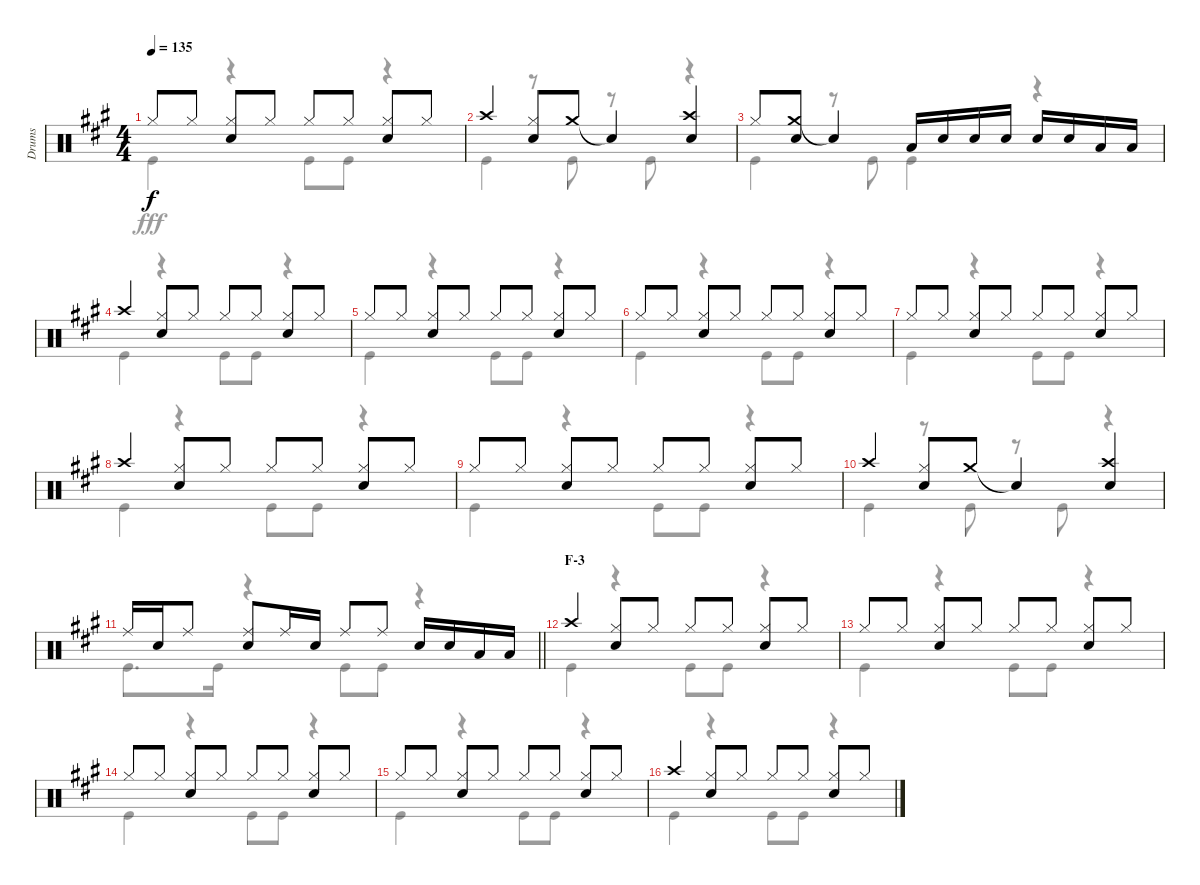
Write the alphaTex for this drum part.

\track ("Drums" "Drums") {instrument percussion}
\staff {score}
\articulation defaults
\voice
\ts (4 4)
\tempo 135
\clef neutral
\ks a "Hi-Hat (closed)".8{dy f} "Hi-Hat (closed)".8
("Hi-Hat (closed)" "Snare (hit) 2").8 "Hi-Hat (closed)".8 "Hi-Hat (closed)".8 "Hi-Hat (closed)".8 ("Hi-Hat (closed)" "Snare (hit) 2").8 "Hi-Hat (closed)".8 |
"Crash high (hit)".4 ("Hi-Hat (closed)" "Snare (hit) 2").8 "Crash medium (hit)".8 "Snare (hit)"{t}.4 ("Crash high (hit)" "Snare (hit) 2").4 |
"Hi-Hat (closed)".8 ("Crash medium (hit)" "Snare (hit) 2").8 "Snare (hit)"{t}.4 "Low Tom (hit)".16 "Snare (hit) 2".16 "Snare (hit) 2".16 "Snare (hit) 2".16 "Snare (hit) 2".16 "Snare (hit) 2".16 "Low Tom (hit)".16 "Low Tom (hit)".16 |
"Crash high (hit)".4 ("Hi-Hat (closed)" "Snare (hit) 2").8 "Hi-Hat (closed)".8 "Hi-Hat (closed)".8 "Hi-Hat (closed)".8 ("Hi-Hat (closed)" "Snare (hit) 2").8 "Hi-Hat (closed)".8 |
"Hi-Hat (closed)".8 "Hi-Hat (closed)".8 ("Hi-Hat (closed)" "Snare (hit) 2").8 "Hi-Hat (closed)".8 "Hi-Hat (closed)".8 "Hi-Hat (closed)".8 ("Hi-Hat (closed)" "Snare (hit) 2").8 "Hi-Hat (closed)".8 |
"Hi-Hat (closed)".8 "Hi-Hat (closed)".8 ("Hi-Hat (closed)" "Snare (hit) 2").8 "Hi-Hat (closed)".8 "Hi-Hat (closed)".8 "Hi-Hat (closed)".8 ("Hi-Hat (closed)" "Snare (hit) 2").8 "Hi-Hat (closed)".8 |
"Hi-Hat (closed)".8 "Hi-Hat (closed)".8 ("Hi-Hat (closed)" "Snare (hit) 2").8 "Hi-Hat (closed)".8 "Hi-Hat (closed)".8 "Hi-Hat (closed)".8 ("Hi-Hat (closed)" "Snare (hit) 2").8 "Hi-Hat (closed)".8 |
"Crash high (hit)".4 ("Hi-Hat (closed)" "Snare (hit) 2").8 "Hi-Hat (closed)".8 "Hi-Hat (closed)".8 "Hi-Hat (closed)".8 ("Hi-Hat (closed)" "Snare (hit) 2").8 "Hi-Hat (closed)".8 |
"Hi-Hat (closed)".8 "Hi-Hat (closed)".8 ("Hi-Hat (closed)" "Snare (hit) 2").8 "Hi-Hat (closed)".8 "Hi-Hat (closed)".8 "Hi-Hat (closed)".8 ("Hi-Hat (closed)" "Snare (hit) 2").8 "Hi-Hat (closed)".8 |
"Crash high (hit)".4 ("Hi-Hat (closed)" "Snare (hit) 2").8 "Crash medium (hit)".8 "Snare (hit)"{t}.4 ("Crash high (hit)" "Snare (hit) 2").4 |
\barLineRight lightlight "Ride (middle)".16 "Snare (hit) 2".16 "Ride (middle)".8
("Ride (middle)" "Snare (hit) 2").8 "Ride (middle)".16 "Snare (hit) 2".16 "Ride (middle)".8 "Ride (middle)".8 "Snare (hit) 2".16 "Snare (hit) 2".16 "Low Tom (hit)".16 "Low Tom (hit)".16 |
\section ("" "F-3")
"Crash high (hit)".4 ("Hi-Hat (closed)" "Snare (hit) 2").8 "Hi-Hat (closed)".8 "Hi-Hat (closed)".8 "Hi-Hat (closed)".8 ("Hi-Hat (closed)" "Snare (hit) 2").8 "Hi-Hat (closed)".8 |
"Hi-Hat (closed)".8 "Hi-Hat (closed)".8 ("Hi-Hat (closed)" "Snare (hit) 2").8 "Hi-Hat (closed)".8 "Hi-Hat (closed)".8 "Hi-Hat (closed)".8 ("Hi-Hat (closed)" "Snare (hit) 2").8 "Hi-Hat (closed)".8 |
"Hi-Hat (closed)".8 "Hi-Hat (closed)".8 ("Hi-Hat (closed)" "Snare (hit) 2").8 "Hi-Hat (closed)".8 "Hi-Hat (closed)".8 "Hi-Hat (closed)".8 ("Hi-Hat (closed)" "Snare (hit) 2").8 "Hi-Hat (closed)".8 |
"Hi-Hat (closed)".8 "Hi-Hat (closed)".8 ("Hi-Hat (closed)" "Snare (hit) 2").8 "Hi-Hat (closed)".8 "Hi-Hat (closed)".8 "Hi-Hat (closed)".8 ("Hi-Hat (closed)" "Snare (hit) 2").8 "Hi-Hat (closed)".8 |
"Crash high (hit)".4 ("Hi-Hat (closed)" "Snare (hit) 2").8 "Hi-Hat (closed)".8 "Hi-Hat (closed)".8 "Hi-Hat (closed)".8 ("Hi-Hat (closed)" "Snare (hit) 2").8 "Hi-Hat (closed)".8
\voice
\clef neutral
\ottava regular
\simile none
\ks a "Kick (hit)".4{dy fff}
r.4 "Kick (hit)".8 "Kick (hit)".8 r.4 |
"Kick (hit)".4 r.8 "Kick (hit)".8 r.8 "Kick (hit)".8 r.4 |
"Kick (hit)".4 r.8 "Kick (hit)".8 "Kick (hit)".4 r.4 |
"Kick (hit)".4 r.4 "Kick (hit)".8 "Kick (hit)".8 r.4 |
"Kick (hit)".4 r.4 "Kick (hit)".8 "Kick (hit)".8 r.4 |
"Kick (hit)".4 r.4 "Kick (hit)".8 "Kick (hit)".8 r.4 |
"Kick (hit)".4 r.4 "Kick (hit)".8 "Kick (hit)".8 r.4 |
"Kick (hit)".4 r.4 "Kick (hit)".8 "Kick (hit)".8 r.4 |
"Kick (hit)".4 r.4 "Kick (hit)".8 "Kick (hit)".8 r.4 |
"Kick (hit)".4 r.8 "Kick (hit)".8 r.8 "Kick (hit)".8 r.4 |
\barLineRight lightlight "Kick (hit)".8{d} "Kick (hit)".16
r.4 "Kick (hit)".8 "Kick (hit)".8 r.4 |
"Kick (hit)".4 r.4 "Kick (hit)".8 "Kick (hit)".8 r.4 |
"Kick (hit)".4 r.4 "Kick (hit)".8 "Kick (hit)".8 r.4 |
"Kick (hit)".4 r.4 "Kick (hit)".8 "Kick (hit)".8 r.4 |
"Kick (hit)".4 r.4 "Kick (hit)".8 "Kick (hit)".8 r.4 |
"Kick (hit)".4 r.4 "Kick (hit)".8 "Kick (hit)".8 r.4
